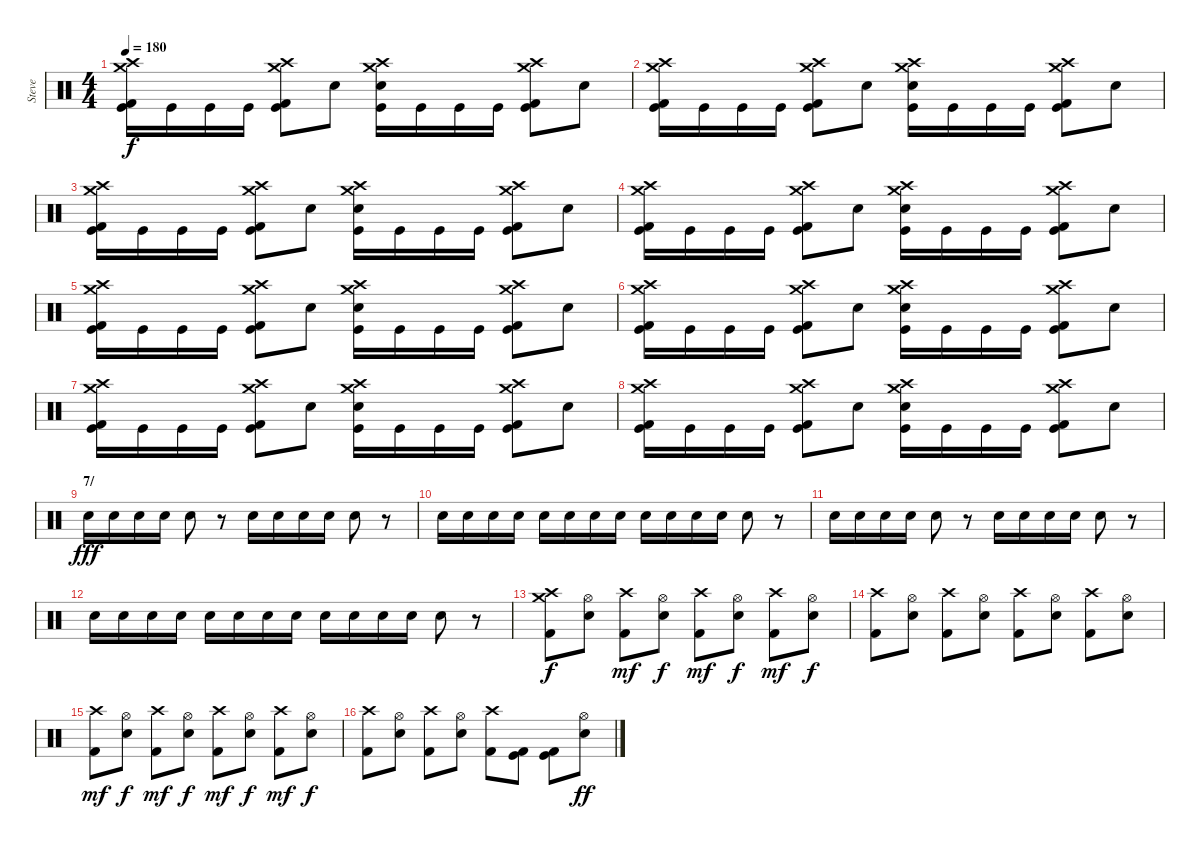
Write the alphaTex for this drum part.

\track ("Steve" "Steve") {instrument percussion}
\staff {score}
\articulation defaults
\ts (4 4)
\tempo 180
\clef neutral
\ks c
("Crash medium (hit)" "Crash high (hit)" "Kick (hit) 2" "Kick (hit)").16{dy f} "Kick (hit)".16 "Kick (hit)".16 "Kick (hit)".16 ("Crash high (hit)" "Crash medium (hit)" "Kick (hit) 2" "Kick (hit)").8 "Snare (hit)"{x}.8 ("Crash medium (hit)" "Crash high (hit)" "Electric Snare (hit)" "Kick (hit)").16 "Kick (hit)".16 "Kick (hit)".16 "Kick (hit)".16 ("Crash high (hit)" "Crash medium (hit)" "Kick (hit) 2" "Kick (hit)").8 "Snare (hit)"{x}.8 |
("Crash medium (hit)" "Crash high (hit)" "Kick (hit) 2" "Kick (hit)").16 "Kick (hit)".16 "Kick (hit)".16 "Kick (hit)".16 ("Crash high (hit)" "Crash medium (hit)" "Kick (hit) 2" "Kick (hit)").8 "Snare (hit)"{x}.8 ("Crash medium (hit)" "Crash high (hit)" "Electric Snare (hit)" "Kick (hit)").16 "Kick (hit)".16 "Kick (hit)".16 "Kick (hit)".16 ("Crash high (hit)" "Crash medium (hit)" "Kick (hit) 2" "Kick (hit)").8 "Snare (hit)"{x}.8 |
("Crash medium (hit)" "Crash high (hit)" "Kick (hit) 2" "Kick (hit)").16 "Kick (hit)".16 "Kick (hit)".16 "Kick (hit)".16 ("Crash high (hit)" "Crash medium (hit)" "Kick (hit) 2" "Kick (hit)").8 "Snare (hit)"{x}.8 ("Crash medium (hit)" "Crash high (hit)" "Electric Snare (hit)" "Kick (hit)").16 "Kick (hit)".16 "Kick (hit)".16 "Kick (hit)".16 ("Crash high (hit)" "Crash medium (hit)" "Kick (hit) 2" "Kick (hit)").8 "Snare (hit)"{x}.8 |
("Crash medium (hit)" "Crash high (hit)" "Kick (hit) 2" "Kick (hit)").16 "Kick (hit)".16 "Kick (hit)".16 "Kick (hit)".16 ("Crash high (hit)" "Crash medium (hit)" "Kick (hit) 2" "Kick (hit)").8 "Snare (hit)"{x}.8 ("Crash medium (hit)" "Crash high (hit)" "Electric Snare (hit)" "Kick (hit)").16 "Kick (hit)".16 "Kick (hit)".16 "Kick (hit)".16 ("Crash high (hit)" "Crash medium (hit)" "Kick (hit) 2" "Kick (hit)").8 "Snare (hit)"{x}.8 |
("Crash medium (hit)" "Crash high (hit)" "Kick (hit) 2" "Kick (hit)").16 "Kick (hit)".16 "Kick (hit)".16 "Kick (hit)".16 ("Crash high (hit)" "Crash medium (hit)" "Kick (hit) 2" "Kick (hit)").8 "Snare (hit)"{x}.8 ("Crash medium (hit)" "Crash high (hit)" "Electric Snare (hit)" "Kick (hit)").16 "Kick (hit)".16 "Kick (hit)".16 "Kick (hit)".16 ("Crash high (hit)" "Crash medium (hit)" "Kick (hit) 2" "Kick (hit)").8 "Snare (hit)"{x}.8 |
("Crash medium (hit)" "Crash high (hit)" "Kick (hit) 2" "Kick (hit)").16 "Kick (hit)".16 "Kick (hit)".16 "Kick (hit)".16 ("Crash high (hit)" "Crash medium (hit)" "Kick (hit) 2" "Kick (hit)").8 "Snare (hit)"{x}.8 ("Crash medium (hit)" "Crash high (hit)" "Electric Snare (hit)" "Kick (hit)").16 "Kick (hit)".16 "Kick (hit)".16 "Kick (hit)".16 ("Crash high (hit)" "Crash medium (hit)" "Kick (hit) 2" "Kick (hit)").8 "Snare (hit)"{x}.8 |
("Crash medium (hit)" "Crash high (hit)" "Kick (hit) 2" "Kick (hit)").16 "Kick (hit)".16 "Kick (hit)".16 "Kick (hit)".16 ("Crash high (hit)" "Crash medium (hit)" "Kick (hit) 2" "Kick (hit)").8 "Snare (hit)"{x}.8 ("Crash medium (hit)" "Crash high (hit)" "Electric Snare (hit)" "Kick (hit)").16 "Kick (hit)".16 "Kick (hit)".16 "Kick (hit)".16 ("Crash high (hit)" "Crash medium (hit)" "Kick (hit) 2" "Kick (hit)").8 "Snare (hit)"{x}.8 |
("Crash medium (hit)" "Crash high (hit)" "Kick (hit) 2" "Kick (hit)").16 "Kick (hit)".16 "Kick (hit)".16 "Kick (hit)".16 ("Crash high (hit)" "Crash medium (hit)" "Kick (hit) 2" "Kick (hit)").8 "Snare (hit)"{x}.8 ("Crash medium (hit)" "Crash high (hit)" "Electric Snare (hit)" "Kick (hit)").16 "Kick (hit)".16 "Kick (hit)".16 "Kick (hit)".16 ("Crash high (hit)" "Crash medium (hit)" "Kick (hit) 2" "Kick (hit)").8 "Snare (hit)"{x}.8 |
\section ("" "7/")
"Electric Snare (hit)".16{dy fff} "Electric Snare (hit)".16 "Electric Snare (hit)".16 "Electric Snare (hit)".16 "Electric Snare (hit)".8 r.8 "Electric Snare (hit)".16 "Electric Snare (hit)".16 "Electric Snare (hit)".16 "Electric Snare (hit)".16 "Electric Snare (hit)".8 r.8 |
"Electric Snare (hit)".16 "Electric Snare (hit)".16 "Electric Snare (hit)".16 "Electric Snare (hit)".16 "Electric Snare (hit)".16 "Electric Snare (hit)".16 "Electric Snare (hit)".16 "Electric Snare (hit)".16 "Electric Snare (hit)".16 "Electric Snare (hit)".16 "Electric Snare (hit)".16 "Electric Snare (hit)".16 "Electric Snare (hit)".8 r.8 |
"Electric Snare (hit)".16 "Electric Snare (hit)".16 "Electric Snare (hit)".16 "Electric Snare (hit)".16 "Electric Snare (hit)".8 r.8 "Electric Snare (hit)".16 "Electric Snare (hit)".16 "Electric Snare (hit)".16 "Electric Snare (hit)".16 "Electric Snare (hit)".8 r.8 |
"Electric Snare (hit)".16 "Electric Snare (hit)".16 "Electric Snare (hit)".16 "Electric Snare (hit)".16 "Electric Snare (hit)".16 "Electric Snare (hit)".16 "Electric Snare (hit)".16 "Electric Snare (hit)".16 "Electric Snare (hit)".16 "Electric Snare (hit)".16 "Electric Snare (hit)".16 "Electric Snare (hit)".16 "Electric Snare (hit)".8 r.8 |
("Crash medium (hit)" "Crash high (hit)" "Kick (hit) 2").8{dy f} ("Hi-Hat (open)" "Electric Snare (hit)").8 ("Crash high (hit)" "Kick (hit) 2").8{dy mf} ("Hi-Hat (open)" "Electric Snare (hit)").8{dy f} ("Crash high (hit)" "Kick (hit) 2").8{dy mf} ("Hi-Hat (open)" "Electric Snare (hit)").8{dy f} ("Crash high (hit)" "Kick (hit) 2").8{dy mf} ("Hi-Hat (open)" "Electric Snare (hit)").8{dy f} |
("Crash high (hit)" "Kick (hit) 2").8 ("Hi-Hat (open)" "Electric Snare (hit)").8 ("Crash high (hit)" "Kick (hit) 2").8 ("Hi-Hat (open)" "Electric Snare (hit)").8 ("Crash high (hit)" "Kick (hit) 2").8 ("Hi-Hat (open)" "Electric Snare (hit)").8 ("Crash high (hit)" "Kick (hit) 2").8 ("Hi-Hat (open)" "Electric Snare (hit)").8 |
("Crash high (hit)" "Kick (hit) 2").8{dy mf} ("Hi-Hat (open)" "Electric Snare (hit)").8{dy f} ("Crash high (hit)" "Kick (hit) 2").8{dy mf} ("Hi-Hat (open)" "Electric Snare (hit)").8{dy f} ("Crash high (hit)" "Kick (hit) 2").8{dy mf} ("Hi-Hat (open)" "Electric Snare (hit)").8{dy f} ("Crash high (hit)" "Kick (hit) 2").8{dy mf} ("Hi-Hat (open)" "Electric Snare (hit)").8{dy f} |
("Crash high (hit)" "Kick (hit) 2").8 ("Hi-Hat (open)" "Electric Snare (hit)").8 ("Crash high (hit)" "Kick (hit) 2").8 ("Hi-Hat (open)" "Electric Snare (hit)").8 ("Crash high (hit)" "Kick (hit) 2").8 ("Kick (hit) 2" "Kick (hit)").8 ("Kick (hit) 2" "Kick (hit)").8 ("Hi-Hat (open)" "Electric Snare (hit)").8{dy ff}
